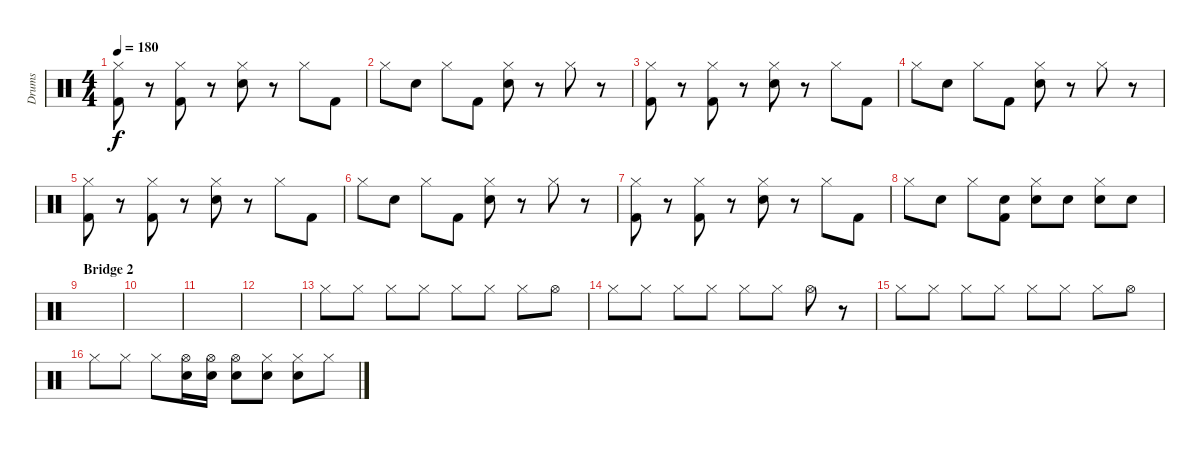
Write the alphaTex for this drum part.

\track ("Drums" "Drums") {instrument percussion}
\staff {score}
\articulation defaults
\ts (4 4)
\tempo 180
\clef neutral
\ks c
("Hi-Hat (closed)" "Kick (hit) 2").8{dy f} r.8 ("Hi-Hat (closed)" "Kick (hit) 2").8 r.8 ("Hi-Hat (closed)" "Snare (hit) 2").8 r.8 "Hi-Hat (closed)".8 "Kick (hit) 2".8 |
"Hi-Hat (closed)".8 "Snare (hit) 2".8 "Hi-Hat (closed)".8 "Kick (hit) 2".8 ("Hi-Hat (closed)" "Snare (hit) 2").8 r.8 "Hi-Hat (closed)".8 r.8 |
("Hi-Hat (closed)" "Kick (hit) 2").8 r.8 ("Hi-Hat (closed)" "Kick (hit) 2").8 r.8 ("Hi-Hat (closed)" "Snare (hit) 2").8 r.8 "Hi-Hat (closed)".8 "Kick (hit) 2".8 |
"Hi-Hat (closed)".8 "Snare (hit) 2".8 "Hi-Hat (closed)".8 "Kick (hit) 2".8 ("Hi-Hat (closed)" "Snare (hit) 2").8 r.8 "Hi-Hat (closed)".8 r.8 |
("Hi-Hat (closed)" "Kick (hit) 2").8 r.8 ("Hi-Hat (closed)" "Kick (hit) 2").8 r.8 ("Hi-Hat (closed)" "Snare (hit) 2").8 r.8 "Hi-Hat (closed)".8 "Kick (hit) 2".8 |
"Hi-Hat (closed)".8 "Snare (hit) 2".8 "Hi-Hat (closed)".8 "Kick (hit) 2".8 ("Hi-Hat (closed)" "Snare (hit) 2").8 r.8 "Hi-Hat (closed)".8 r.8 |
("Hi-Hat (closed)" "Kick (hit) 2").8 r.8 ("Hi-Hat (closed)" "Kick (hit) 2").8 r.8 ("Hi-Hat (closed)" "Snare (hit) 2").8 r.8 "Hi-Hat (closed)".8 "Kick (hit) 2".8 |
"Hi-Hat (closed)".8 "Snare (hit) 2".8 "Hi-Hat (closed)".8 ("Snare (hit) 2" "Kick (hit) 2").8 ("Hi-Hat (closed)" "Snare (hit) 2").8 "Snare (hit) 2".8 ("Hi-Hat (closed)" "Snare (hit) 2").8 "Snare (hit) 2".8 |
\section ("" "Bridge 2")
|
|
|
|
"Hi-Hat (closed)".8 "Hi-Hat (closed)".8 "Hi-Hat (closed)".8 "Hi-Hat (closed)".8 "Hi-Hat (closed)".8 "Hi-Hat (closed)".8 "Hi-Hat (closed)".8 "Hi-Hat (open)".8 |
"Hi-Hat (closed)".8 "Hi-Hat (closed)".8 "Hi-Hat (closed)".8 "Hi-Hat (closed)".8 "Hi-Hat (closed)".8 "Hi-Hat (closed)".8 "Hi-Hat (open)".8 r.8 |
"Hi-Hat (closed)".8 "Hi-Hat (closed)".8 "Hi-Hat (closed)".8 "Hi-Hat (closed)".8 "Hi-Hat (closed)".8 "Hi-Hat (closed)".8 "Hi-Hat (closed)".8 "Hi-Hat (open)".8 |
"Hi-Hat (closed)".8 "Hi-Hat (closed)".8 "Hi-Hat (closed)".8 ("Hi-Hat (open)" "Snare (hit) 2").16 ("Hi-Hat (open)" "Snare (hit) 2").16 ("Hi-Hat (open)" "Snare (hit) 2").8 ("Hi-Hat (closed)" "Snare (hit) 2").8 ("Hi-Hat (closed)" "Snare (hit) 2").8 "Hi-Hat (closed)".8
